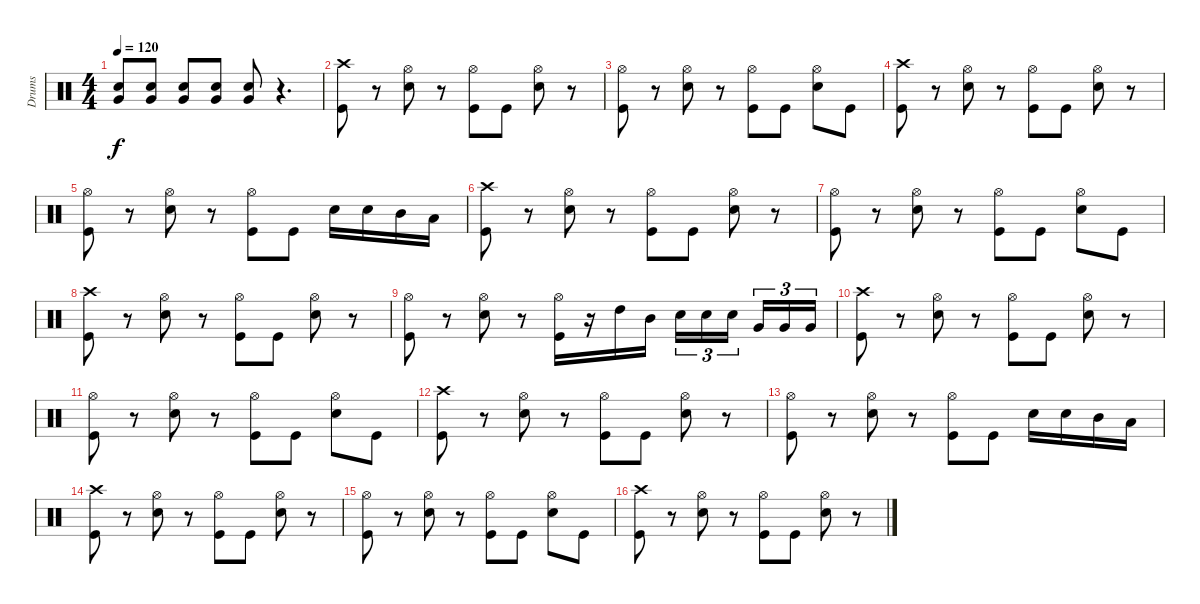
\track ("Drums" "Drums") {instrument percussion}
\staff {score}
\articulation defaults
\ts (4 4)
\tempo 120
\clef neutral
\ks c
("Snare (hit) 2" "Very Low Tom (hit)").8{dy f} ("Snare (hit) 2" "Very Low Tom (hit)").8 ("Snare (hit) 2" "Very Low Tom (hit)").8 ("Snare (hit) 2" "Very Low Tom (hit)").8 ("Snare (hit) 2" "Very Low Tom (hit)").8 r.4{d} |
("Crash high (hit)" "Kick (hit)").8 r.8 ("Hi-Hat (open)" "Snare (hit) 2").8 r.8 ("Hi-Hat (open)" "Kick (hit)").8 "Kick (hit)".8 ("Hi-Hat (open)" "Snare (hit) 2").8 r.8 |
("Hi-Hat (open)" "Kick (hit)").8 r.8 ("Hi-Hat (open)" "Snare (hit) 2").8 r.8 ("Hi-Hat (open)" "Kick (hit)").8 "Kick (hit)".8 ("Hi-Hat (open)" "Snare (hit) 2").8 "Kick (hit)".8 |
("Crash high (hit)" "Kick (hit)").8 r.8 ("Hi-Hat (open)" "Snare (hit) 2").8 r.8 ("Hi-Hat (open)" "Kick (hit)").8 "Kick (hit)".8 ("Hi-Hat (open)" "Snare (hit) 2").8 r.8 |
("Hi-Hat (open)" "Kick (hit)").8 r.8 ("Hi-Hat (open)" "Snare (hit) 2").8 r.8 ("Hi-Hat (open)" "Kick (hit)").8 "Kick (hit)".8 "Snare (hit) 2".16 "Snare (hit) 2".16 "Mid Tom (hit)".16 "Low Tom (hit)".16 |
("Crash high (hit)" "Kick (hit)").8 r.8 ("Hi-Hat (open)" "Snare (hit) 2").8 r.8 ("Hi-Hat (open)" "Kick (hit)").8 "Kick (hit)".8 ("Hi-Hat (open)" "Snare (hit) 2").8 r.8 |
("Hi-Hat (open)" "Kick (hit)").8 r.8 ("Hi-Hat (open)" "Snare (hit) 2").8 r.8 ("Hi-Hat (open)" "Kick (hit)").8 "Kick (hit)".8 ("Hi-Hat (open)" "Snare (hit) 2").8 "Kick (hit)".8 |
("Crash high (hit)" "Kick (hit)").8 r.8 ("Hi-Hat (open)" "Snare (hit) 2").8 r.8 ("Hi-Hat (open)" "Kick (hit)").8 "Kick (hit)".8 ("Hi-Hat (open)" "Snare (hit) 2").8 r.8 |
("Hi-Hat (open)" "Kick (hit)").8 r.8 ("Hi-Hat (open)" "Snare (hit) 2").8 r.8 ("Hi-Hat (open)" "Kick (hit)").16 r.16 "High Tom (hit)".16 "Mid Tom (hit)".16 "Snare (hit) 2".16{tu (3 2)} "Snare (hit) 2".16{tu (3 2)} "Snare (hit) 2".16{tu (3 2)} "Very Low Tom (hit)".16{tu (3 2)} "Very Low Tom (hit)".16{tu (3 2)} "Very Low Tom (hit)".16{tu (3 2)} |
("Crash high (hit)" "Kick (hit)").8 r.8 ("Hi-Hat (open)" "Snare (hit) 2").8 r.8 ("Hi-Hat (open)" "Kick (hit)").8 "Kick (hit)".8 ("Hi-Hat (open)" "Snare (hit) 2").8 r.8 |
("Hi-Hat (open)" "Kick (hit)").8 r.8 ("Hi-Hat (open)" "Snare (hit) 2").8 r.8 ("Hi-Hat (open)" "Kick (hit)").8 "Kick (hit)".8 ("Hi-Hat (open)" "Snare (hit) 2").8 "Kick (hit)".8 |
("Crash high (hit)" "Kick (hit)").8 r.8 ("Hi-Hat (open)" "Snare (hit) 2").8 r.8 ("Hi-Hat (open)" "Kick (hit)").8 "Kick (hit)".8 ("Hi-Hat (open)" "Snare (hit) 2").8 r.8 |
("Hi-Hat (open)" "Kick (hit)").8 r.8 ("Hi-Hat (open)" "Snare (hit) 2").8 r.8 ("Hi-Hat (open)" "Kick (hit)").8 "Kick (hit)".8 "Snare (hit) 2".16 "Snare (hit) 2".16 "Mid Tom (hit)".16 "Low Tom (hit)".16 |
("Crash high (hit)" "Kick (hit)").8 r.8 ("Hi-Hat (open)" "Snare (hit) 2").8 r.8 ("Hi-Hat (open)" "Kick (hit)").8 "Kick (hit)".8 ("Hi-Hat (open)" "Snare (hit) 2").8 r.8 |
("Hi-Hat (open)" "Kick (hit)").8 r.8 ("Hi-Hat (open)" "Snare (hit) 2").8 r.8 ("Hi-Hat (open)" "Kick (hit)").8 "Kick (hit)".8 ("Hi-Hat (open)" "Snare (hit) 2").8 "Kick (hit)".8 |
("Crash high (hit)" "Kick (hit)").8 r.8 ("Hi-Hat (open)" "Snare (hit) 2").8 r.8 ("Hi-Hat (open)" "Kick (hit)").8 "Kick (hit)".8 ("Hi-Hat (open)" "Snare (hit) 2").8 r.8
